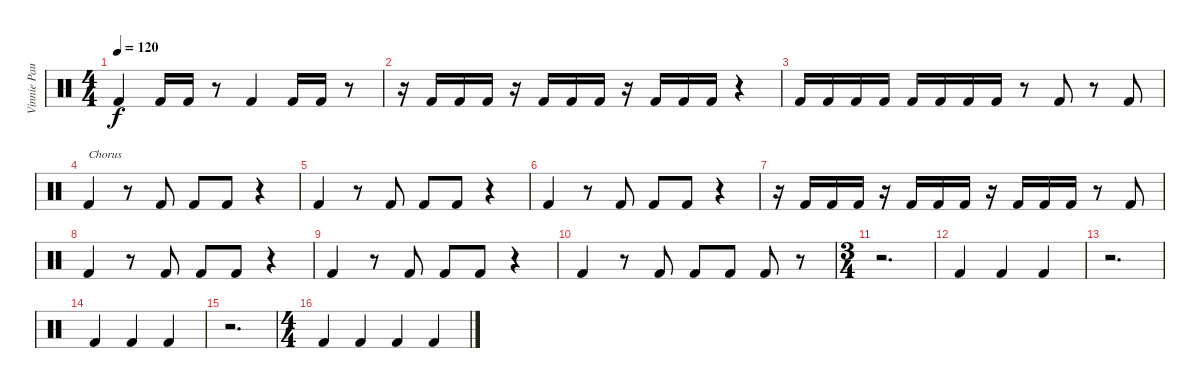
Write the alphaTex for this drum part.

\track ("Vinnie Paul bass drum" "Vinnie Pau") {instrument percussion}
\staff {score}
\articulation defaults
\ts (4 4)
\tempo 120
\clef neutral
\ks c "Kick (hit) 2".4{dy f} "Kick (hit) 2".16 "Kick (hit) 2".16
r.8 "Kick (hit) 2".4 "Kick (hit) 2".16 "Kick (hit) 2".16 r.8 |
r.16 "Kick (hit) 2".16 "Kick (hit) 2".16 "Kick (hit) 2".16 r.16 "Kick (hit) 2".16 "Kick (hit) 2".16 "Kick (hit) 2".16 r.16 "Kick (hit) 2".16 "Kick (hit) 2".16 "Kick (hit) 2".16 r.4 |
"Kick (hit) 2".16 "Kick (hit) 2".16 "Kick (hit) 2".16 "Kick (hit) 2".16 "Kick (hit) 2".16 "Kick (hit) 2".16 "Kick (hit) 2".16 "Kick (hit) 2".16 r.8 "Kick (hit) 2".8 r.8 "Kick (hit) 2".8 |
"Kick (hit) 2".4{txt "Chorus"} r.8 "Kick (hit) 2".8 "Kick (hit) 2".8 "Kick (hit) 2".8 r.4 |
"Kick (hit) 2".4 r.8 "Kick (hit) 2".8 "Kick (hit) 2".8 "Kick (hit) 2".8 r.4 |
"Kick (hit) 2".4 r.8 "Kick (hit) 2".8 "Kick (hit) 2".8 "Kick (hit) 2".8 r.4 |
r.16 "Kick (hit) 2".16 "Kick (hit) 2".16 "Kick (hit) 2".16 r.16 "Kick (hit) 2".16 "Kick (hit) 2".16 "Kick (hit) 2".16 r.16 "Kick (hit) 2".16 "Kick (hit) 2".16 "Kick (hit) 2".16 r.8 "Kick (hit) 2".8 |
"Kick (hit) 2".4 r.8 "Kick (hit) 2".8 "Kick (hit) 2".8 "Kick (hit) 2".8 r.4 |
"Kick (hit) 2".4 r.8 "Kick (hit) 2".8 "Kick (hit) 2".8 "Kick (hit) 2".8 r.4 |
"Kick (hit) 2".4 r.8 "Kick (hit) 2".8 "Kick (hit) 2".8 "Kick (hit) 2".8 "Kick (hit) 2".8 r.8 |
\ts (3 4)
r.2{d} |
"Kick (hit) 2".4 "Kick (hit) 2".4 "Kick (hit) 2".4 |
r.2{d} |
"Kick (hit) 2".4 "Kick (hit) 2".4 "Kick (hit) 2".4 |
r.2{d} |
\ts (4 4)
"Kick (hit) 2".4 "Kick (hit) 2".4 "Kick (hit) 2".4 "Kick (hit) 2".4
